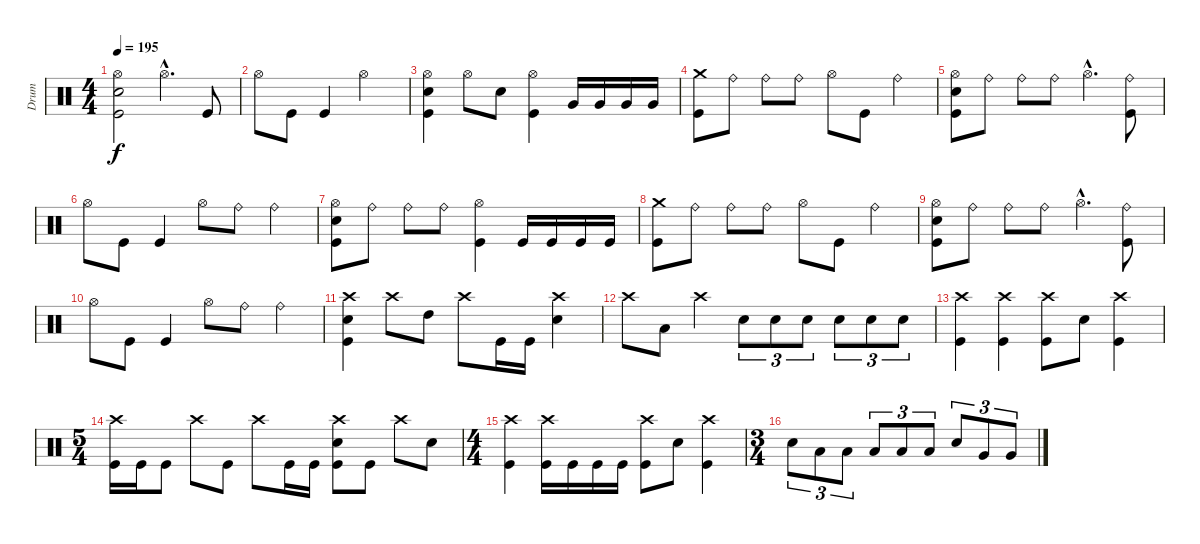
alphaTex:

\track ("Drum" "Drum") {instrument percussion}
\staff {score}
\articulation defaults
\ts (4 4)
\tempo 195
\clef neutral
\ks c
("Hi-Hat (open)" "Snare (hit) 2" "Kick (hit)").2{dy f} "Hi-Hat (open)"{hac}.4{d} "Kick (hit)".8 |
"Hi-Hat (open)".8 "Kick (hit)".8 "Kick (hit)".4 "Hi-Hat (open)".2 |
("Hi-Hat (open)" "Snare (hit) 2" "Kick (hit)").4 "Hi-Hat (open)".8 "Snare (hit) 2".8 ("Hi-Hat (open)" "Kick (hit)").4 "Very Low Tom (hit)".16 "Very Low Tom (hit)".16 "Very Low Tom (hit)".16 "Very Low Tom (hit)".16 |
("Crash medium (hit)" "Kick (hit)").8 "Ride (bell)".8 "Ride (bell)".8 "Ride (bell)".8 "Hi-Hat (open)".8 "Kick (hit)".8 "Ride (bell)".4 |
("Hi-Hat (open)" "Snare (hit) 2" "Kick (hit)").8 "Ride (bell)".8 "Ride (bell)".8 "Ride (bell)".8 "Hi-Hat (open)"{hac}.4{d} ("Ride (bell)" "Kick (hit)").8 |
"Hi-Hat (open)".8 "Kick (hit)".8 "Kick (hit)".4 "Hi-Hat (open)".8 "Ride (bell)".8 "Ride (bell)".4 |
("Hi-Hat (open)" "Snare (hit) 2" "Kick (hit)").8 "Ride (bell)".8 "Ride (bell)".8 "Ride (bell)".8 ("Hi-Hat (open)" "Kick (hit)").4 "Kick (hit)".16 "Kick (hit)".16 "Kick (hit)".16 "Kick (hit)".16 |
("Crash medium (hit)" "Kick (hit)").8 "Ride (bell)".8 "Ride (bell)".8 "Ride (bell)".8 "Hi-Hat (open)".8 "Kick (hit)".8 "Ride (bell)".4 |
("Hi-Hat (open)" "Snare (hit) 2" "Kick (hit)").8 "Ride (bell)".8 "Ride (bell)".8 "Ride (bell)".8 "Hi-Hat (open)"{hac}.4{d} ("Ride (bell)" "Kick (hit)").8 |
"Hi-Hat (open)".8 "Kick (hit)".8 "Kick (hit)".4 "Hi-Hat (open)".8 "Ride (bell)".8 "Ride (bell)".4 |
("Crash high (hit)" "Snare (hit) 2" "Kick (hit)").4 "Crash high (hit)".8 "High Tom (hit)".8 "Crash high (hit)".8 "Kick (hit)".16 "Kick (hit)".16 ("Crash high (hit)" "Snare (hit) 2").4 |
"Crash high (hit)".8 "Low Tom (hit)".8 "Crash high (hit)".4 "Snare (hit) 2".8{tu (3 2)} "Snare (hit) 2".8{tu (3 2)} "Snare (hit) 2".8{tu (3 2)} "Snare (hit) 2".8{tu (3 2)} "Snare (hit) 2".8{tu (3 2)} "Snare (hit) 2".8{tu (3 2)} |
("Crash high (hit)" "Kick (hit)").4 ("Crash high (hit)" "Kick (hit)").4 ("Crash high (hit)" "Kick (hit)").8 "Snare (hit) 2".8 ("Crash high (hit)" "Kick (hit)").4 |
\ts (5 4)
("Crash high (hit)" "Kick (hit)").16 "Kick (hit)".16 "Kick (hit)".8 "Crash high (hit)".8 "Kick (hit)".8 "Crash high (hit)".8 "Kick (hit)".16 "Kick (hit)".16 ("Crash high (hit)" "Snare (hit) 2" "Kick (hit)").8 "Kick (hit)".8 "Crash high (hit)".8 "Snare (hit) 2".8 |
\ts (4 4)
("Crash high (hit)" "Kick (hit)").4 ("Crash high (hit)" "Kick (hit)").16 "Kick (hit)".16 "Kick (hit)".16 "Kick (hit)".16 ("Crash high (hit)" "Kick (hit)").8 "Snare (hit) 2".8 ("Crash high (hit)" "Kick (hit)").4 |
\ts (3 4)
"Snare (hit) 2".8{tu (3 2)} "Low Tom (hit)".8{tu (3 2)} "Low Tom (hit)".8{tu (3 2)} "Low Tom (hit)".8{tu (3 2)} "Low Tom (hit)".8{tu (3 2)} "Low Tom (hit)".8{tu (3 2)} "Snare (hit) 2".8{tu (3 2)} "Very Low Tom (hit)".8{tu (3 2)} "Very Low Tom (hit)".8{tu (3 2)}
